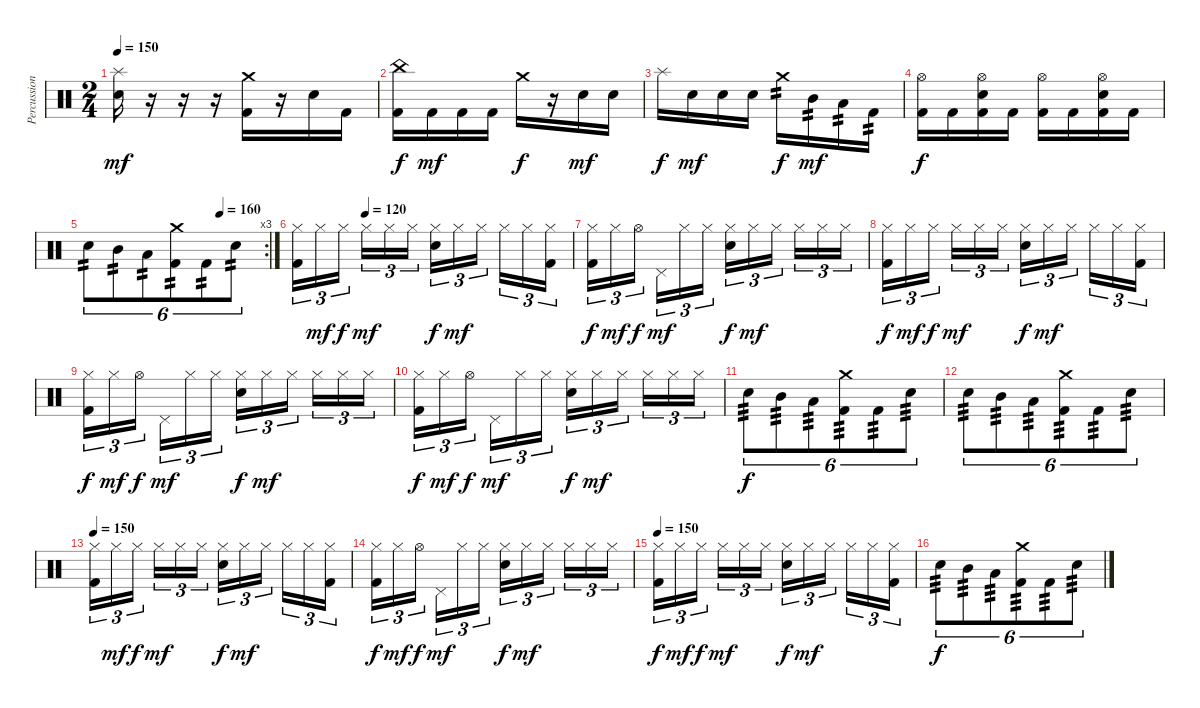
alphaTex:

\track ("Percussion" "Percussion") {instrument percussion}
\staff {score}
\articulation defaults
\ts (2 4)
\tempo 150
\clef neutral
\ks c
("Snare (hit) 2" "Splash (hit)").16{dy mf} r.16 r.16 r.16 ("Kick (hit) 2" "Crash medium (hit)").16 r.16 "Snare (hit) 2".16 "Kick (hit) 2".16 |
("Kick (hit) 2" "China (hit)").16{dy f} "Kick (hit) 2".16{dy mf} "Kick (hit) 2".16 "Kick (hit) 2".16 "Crash medium (hit)".16{dy f} r.16 "Snare (hit) 2".16{dy mf} "Snare (hit) 2".16 |
"Splash (hit)".16{dy f} "Snare (hit) 2".16{dy mf} "Snare (hit) 2".16 "Snare (hit) 2".16 "Crash medium (hit)".16{tp 2 dy f} "Mid Tom (hit)".16{tp 2 dy mf} "Low Tom (hit)".16{tp 2} "Kick (hit) 2".16{tp 2} |
("Kick (hit) 2" "Hi-Hat (open)").16{dy f} "Kick (hit) 2".16 ("Kick (hit) 2" "Snare (hit) 2" "Hi-Hat (open)").16 "Kick (hit) 2".16 ("Kick (hit) 2" "Hi-Hat (open)").16 "Kick (hit) 2".16 ("Kick (hit) 2" "Snare (hit) 2" "Hi-Hat (open)").16 "Kick (hit) 2".16 |
\rc 3
\tempo (160 0.75)
"Snare (hit) 2".8{tu (6 4) tp 2} "Mid Tom (hit)".8{tu (6 4) tp 2} "Low Tom (hit)".8{tu (6 4) tp 2} ("Crash medium (hit)" "Kick (hit) 2").8{tu (6 4) tp 2} "Kick (hit) 2".8{tu (6 4) tp 2} "Snare (hit) 2".8{tu (6 4) tp 2} |
\tempo (120 0.25)
("Kick (hit) 2" "Hi-Hat (closed)").16{tu (3 2)} "Hi-Hat (closed)".16{tu (3 2) dy mf} "Hi-Hat (closed)".16{tu (3 2) dy f beam splitsecondary} "Hi-Hat (closed)".16{tu (3 2) dy mf} "Hi-Hat (closed)".16{tu (3 2)} "Hi-Hat (closed)".16{tu (3 2)} ("Snare (hit) 2" "Hi-Hat (closed)").16{tu (3 2) dy f} "Hi-Hat (closed)".16{tu (3 2) dy mf} "Hi-Hat (closed)".16{tu (3 2) beam splitsecondary} "Hi-Hat (closed)".16{tu (3 2)} "Hi-Hat (closed)".16{tu (3 2)} ("Kick (hit) 2" "Hi-Hat (closed)").16{tu (3 2)} |
("Kick (hit) 2" "Hi-Hat (closed)").16{tu (3 2) dy f} "Hi-Hat (closed)".16{tu (3 2) dy mf} "Hi-Hat (open)".16{tu (3 2) dy f beam splitsecondary} "Pedal Hi-Hat (hit)".16{tu (3 2) dy mf} "Hi-Hat (closed)".16{tu (3 2)} "Hi-Hat (closed)".16{tu (3 2)} ("Snare (hit) 2" "Hi-Hat (closed)").16{tu (3 2) dy f} "Hi-Hat (closed)".16{tu (3 2) dy mf} "Hi-Hat (closed)".16{tu (3 2) beam splitsecondary} "Hi-Hat (closed)".16{tu (3 2)} "Hi-Hat (closed)".16{tu (3 2)} "Hi-Hat (closed)".16{tu (3 2)} |
("Kick (hit) 2" "Hi-Hat (closed)").16{tu (3 2) dy f} "Hi-Hat (closed)".16{tu (3 2) dy mf} "Hi-Hat (closed)".16{tu (3 2) dy f beam splitsecondary} "Hi-Hat (closed)".16{tu (3 2) dy mf} "Hi-Hat (closed)".16{tu (3 2)} "Hi-Hat (closed)".16{tu (3 2)} ("Snare (hit) 2" "Hi-Hat (closed)").16{tu (3 2) dy f} "Hi-Hat (closed)".16{tu (3 2) dy mf} "Hi-Hat (closed)".16{tu (3 2) beam splitsecondary} "Hi-Hat (closed)".16{tu (3 2)} "Hi-Hat (closed)".16{tu (3 2)} ("Kick (hit) 2" "Hi-Hat (closed)").16{tu (3 2)} |
("Kick (hit) 2" "Hi-Hat (closed)").16{tu (3 2) dy f} "Hi-Hat (closed)".16{tu (3 2) dy mf} "Hi-Hat (open)".16{tu (3 2) dy f beam splitsecondary} "Pedal Hi-Hat (hit)".16{tu (3 2) dy mf} "Hi-Hat (closed)".16{tu (3 2)} "Hi-Hat (closed)".16{tu (3 2)} ("Snare (hit) 2" "Hi-Hat (closed)").16{tu (3 2) dy f} "Hi-Hat (closed)".16{tu (3 2) dy mf} "Hi-Hat (closed)".16{tu (3 2) beam splitsecondary} "Hi-Hat (closed)".16{tu (3 2)} "Hi-Hat (closed)".16{tu (3 2)} "Hi-Hat (closed)".16{tu (3 2)} |
("Kick (hit) 2" "Hi-Hat (closed)").16{tu (3 2) dy f} "Hi-Hat (closed)".16{tu (3 2) dy mf} "Hi-Hat (open)".16{tu (3 2) dy f beam splitsecondary} "Pedal Hi-Hat (hit)".16{tu (3 2) dy mf} "Hi-Hat (closed)".16{tu (3 2)} "Hi-Hat (closed)".16{tu (3 2)} ("Snare (hit) 2" "Hi-Hat (closed)").16{tu (3 2) dy f} "Hi-Hat (closed)".16{tu (3 2) dy mf} "Hi-Hat (closed)".16{tu (3 2) beam splitsecondary} "Hi-Hat (closed)".16{tu (3 2)} "Hi-Hat (closed)".16{tu (3 2)} "Hi-Hat (closed)".16{tu (3 2)} |
"Snare (hit) 2".8{tu (6 4) tp 3 dy f} "Mid Tom (hit)".8{tu (6 4) tp 3} "Low Tom (hit)".8{tu (6 4) tp 3} ("Crash medium (hit)" "Kick (hit) 2").8{tu (6 4) tp 3} "Kick (hit) 2".8{tu (6 4) tp 3} "Snare (hit) 2".8{tu (6 4) tp 3} |
"Snare (hit) 2".8{tu (6 4) tp 3} "Mid Tom (hit)".8{tu (6 4) tp 3} "Low Tom (hit)".8{tu (6 4) tp 3} ("Crash medium (hit)" "Kick (hit) 2").8{tu (6 4) tp 3} "Kick (hit) 2".8{tu (6 4) tp 3} "Snare (hit) 2".8{tu (6 4) tp 3} |
\tempo 150
("Kick (hit) 2" "Hi-Hat (closed)").16{tu (3 2)} "Hi-Hat (closed)".16{tu (3 2) dy mf} "Hi-Hat (closed)".16{tu (3 2) dy f beam splitsecondary} "Hi-Hat (closed)".16{tu (3 2) dy mf} "Hi-Hat (closed)".16{tu (3 2)} "Hi-Hat (closed)".16{tu (3 2)} ("Snare (hit) 2" "Hi-Hat (closed)").16{tu (3 2) dy f} "Hi-Hat (closed)".16{tu (3 2) dy mf} "Hi-Hat (closed)".16{tu (3 2) beam splitsecondary} "Hi-Hat (closed)".16{tu (3 2)} "Hi-Hat (closed)".16{tu (3 2)} ("Kick (hit) 2" "Hi-Hat (closed)").16{tu (3 2)} |
("Kick (hit) 2" "Hi-Hat (closed)").16{tu (3 2) dy f} "Hi-Hat (closed)".16{tu (3 2) dy mf} "Hi-Hat (open)".16{tu (3 2) dy f beam splitsecondary} "Pedal Hi-Hat (hit)".16{tu (3 2) dy mf} "Hi-Hat (closed)".16{tu (3 2)} "Hi-Hat (closed)".16{tu (3 2)} ("Snare (hit) 2" "Hi-Hat (closed)").16{tu (3 2) dy f} "Hi-Hat (closed)".16{tu (3 2) dy mf} "Hi-Hat (closed)".16{tu (3 2) beam splitsecondary} "Hi-Hat (closed)".16{tu (3 2)} "Hi-Hat (closed)".16{tu (3 2)} "Hi-Hat (closed)".16{tu (3 2)} |
\tempo 150
("Kick (hit) 2" "Hi-Hat (closed)").16{tu (3 2) dy f} "Hi-Hat (closed)".16{tu (3 2) dy mf} "Hi-Hat (closed)".16{tu (3 2) dy f beam splitsecondary} "Hi-Hat (closed)".16{tu (3 2) dy mf} "Hi-Hat (closed)".16{tu (3 2)} "Hi-Hat (closed)".16{tu (3 2)} ("Snare (hit) 2" "Hi-Hat (closed)").16{tu (3 2) dy f} "Hi-Hat (closed)".16{tu (3 2) dy mf} "Hi-Hat (closed)".16{tu (3 2) beam splitsecondary} "Hi-Hat (closed)".16{tu (3 2)} "Hi-Hat (closed)".16{tu (3 2)} ("Kick (hit) 2" "Hi-Hat (closed)").16{tu (3 2)} |
"Snare (hit) 2".8{tu (6 4) tp 3 dy f} "Mid Tom (hit)".8{tu (6 4) tp 3} "Low Tom (hit)".8{tu (6 4) tp 3} ("Crash medium (hit)" "Kick (hit) 2").8{tu (6 4) tp 3} "Kick (hit) 2".8{tu (6 4) tp 3} "Snare (hit) 2".8{tu (6 4) tp 3}
